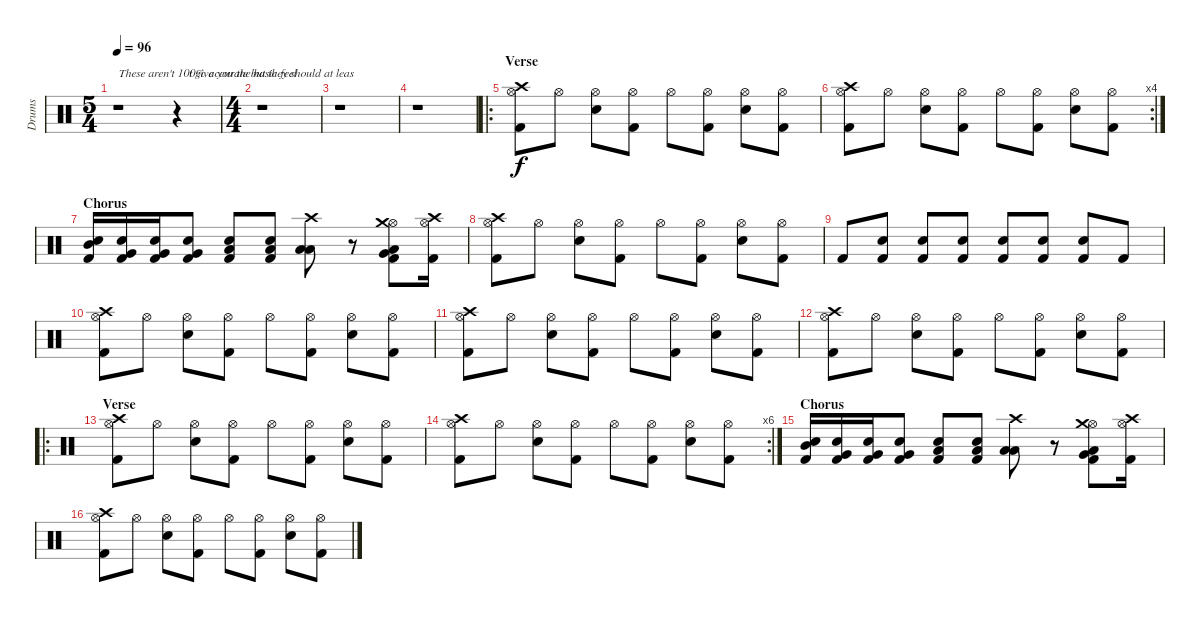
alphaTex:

\track ("Drums" "Drums") {instrument percussion}
\staff {score}
\articulation defaults
\ts (5 4)
\tempo 96
\clef neutral
\ks c
r.1{txt "These aren't 100% accurate but they should at leas" dy f} r.4{txt "    t give you the basic feel"} |
\ts (4 4)
r.1 |
r.1 |
r.1 |
\ro
\section ("" "Verse")
("Kick (hit) 2" "Hi-Hat (open)" "Crash high (hit)").8 "Hi-Hat (open)".8 ("Electric Snare (hit)" "Hi-Hat (open)").8 ("Kick (hit) 2" "Hi-Hat (open)").8 "Hi-Hat (open)".8 ("Kick (hit) 2" "Hi-Hat (open)").8 ("Electric Snare (hit)" "Hi-Hat (open)").8 ("Kick (hit) 2" "Hi-Hat (open)").8 |
\rc 4
("Kick (hit) 2" "Hi-Hat (open)" "Crash high (hit)").8 "Hi-Hat (open)".8 ("Electric Snare (hit)" "Hi-Hat (open)").8 ("Kick (hit) 2" "Hi-Hat (open)").8 "Hi-Hat (open)".8 ("Kick (hit) 2" "Hi-Hat (open)").8 ("Electric Snare (hit)" "Hi-Hat (open)").8 ("Kick (hit) 2" "Hi-Hat (open)").8 |
\section ("" "Chorus")
("Kick (hit) 2" "Mid Tom (hit)" "Electric Snare (hit)").16 ("Kick (hit) 2" "Very Low Tom (hit)" "Electric Snare (hit)").16 ("Kick (hit) 2" "Very Low Tom (hit)" "Electric Snare (hit)").16 ("Kick (hit) 2" "Very Low Tom (hit)" "Electric Snare (hit)").8 ("Kick (hit) 2" "Low Floor Tom (hit)" "Electric Snare (hit)").8 ("Kick (hit) 2" "Low Floor Tom (hit)" "Electric Snare (hit)").8 ("Low Floor Tom (hit)" "Low Tom (hit)" "Crash high (hit)").8 r.8 ("Kick (hit) 2" "Very Low Tom (hit)" "Hi-Hat (open)" "Low Tom (hit)" "Crash medium (hit)").8 ("Kick (hit) 2" "Hi-Hat (open)" "Crash high (hit)").16 |
("Kick (hit) 2" "Hi-Hat (open)" "Crash high (hit)").8 "Hi-Hat (open)".8 ("Electric Snare (hit)" "Hi-Hat (open)").8 ("Kick (hit) 2" "Hi-Hat (open)").8 "Hi-Hat (open)".8 ("Kick (hit) 2" "Hi-Hat (open)").8 ("Electric Snare (hit)" "Hi-Hat (open)").8 ("Kick (hit) 2" "Hi-Hat (open)").8 |
"Kick (hit) 2".8 ("Electric Snare (hit)" "Kick (hit) 2").8 ("Electric Snare (hit)" "Kick (hit) 2").8 ("Kick (hit) 2" "Electric Snare (hit)").8 ("Electric Snare (hit)" "Kick (hit) 2").8 ("Electric Snare (hit)" "Kick (hit) 2").8 ("Kick (hit) 2" "Electric Snare (hit)").8 "Kick (hit) 2".8 |
("Kick (hit) 2" "Hi-Hat (open)" "Crash high (hit)").8 "Hi-Hat (open)".8 ("Electric Snare (hit)" "Hi-Hat (open)").8 ("Kick (hit) 2" "Hi-Hat (open)").8 "Hi-Hat (open)".8 ("Kick (hit) 2" "Hi-Hat (open)").8 ("Electric Snare (hit)" "Hi-Hat (open)").8 ("Kick (hit) 2" "Hi-Hat (open)").8 |
("Kick (hit) 2" "Hi-Hat (open)" "Crash high (hit)").8 "Hi-Hat (open)".8 ("Electric Snare (hit)" "Hi-Hat (open)").8 ("Kick (hit) 2" "Hi-Hat (open)").8 "Hi-Hat (open)".8 ("Kick (hit) 2" "Hi-Hat (open)").8 ("Electric Snare (hit)" "Hi-Hat (open)").8 ("Kick (hit) 2" "Hi-Hat (open)").8 |
("Kick (hit) 2" "Hi-Hat (open)" "Crash high (hit)").8 "Hi-Hat (open)".8 ("Electric Snare (hit)" "Hi-Hat (open)").8 ("Kick (hit) 2" "Hi-Hat (open)").8 "Hi-Hat (open)".8 ("Kick (hit) 2" "Hi-Hat (open)").8 ("Electric Snare (hit)" "Hi-Hat (open)").8 ("Kick (hit) 2" "Hi-Hat (open)").8 |
\ro
\section ("" "Verse")
("Kick (hit) 2" "Hi-Hat (open)" "Crash high (hit)").8 "Hi-Hat (open)".8 ("Electric Snare (hit)" "Hi-Hat (open)").8 ("Kick (hit) 2" "Hi-Hat (open)").8 "Hi-Hat (open)".8 ("Kick (hit) 2" "Hi-Hat (open)").8 ("Electric Snare (hit)" "Hi-Hat (open)").8 ("Kick (hit) 2" "Hi-Hat (open)").8 |
\rc 6
("Kick (hit) 2" "Hi-Hat (open)" "Crash high (hit)").8 "Hi-Hat (open)".8 ("Electric Snare (hit)" "Hi-Hat (open)").8 ("Kick (hit) 2" "Hi-Hat (open)").8 "Hi-Hat (open)".8 ("Kick (hit) 2" "Hi-Hat (open)").8 ("Electric Snare (hit)" "Hi-Hat (open)").8 ("Kick (hit) 2" "Hi-Hat (open)").8 |
\section ("" "Chorus")
("Kick (hit) 2" "Mid Tom (hit)" "Electric Snare (hit)").16 ("Kick (hit) 2" "Very Low Tom (hit)" "Electric Snare (hit)").16 ("Kick (hit) 2" "Very Low Tom (hit)" "Electric Snare (hit)").16 ("Kick (hit) 2" "Very Low Tom (hit)" "Electric Snare (hit)").8 ("Kick (hit) 2" "Low Floor Tom (hit)" "Electric Snare (hit)").8 ("Kick (hit) 2" "Low Floor Tom (hit)" "Electric Snare (hit)").8 ("Low Floor Tom (hit)" "Low Tom (hit)" "Crash high (hit)").8 r.8 ("Kick (hit) 2" "Very Low Tom (hit)" "Hi-Hat (open)" "Low Tom (hit)" "Crash medium (hit)").8 ("Kick (hit) 2" "Hi-Hat (open)" "Crash high (hit)").16 |
("Kick (hit) 2" "Hi-Hat (open)" "Crash high (hit)").8 "Hi-Hat (open)".8 ("Electric Snare (hit)" "Hi-Hat (open)").8 ("Kick (hit) 2" "Hi-Hat (open)").8 "Hi-Hat (open)".8 ("Kick (hit) 2" "Hi-Hat (open)").8 ("Electric Snare (hit)" "Hi-Hat (open)").8 ("Kick (hit) 2" "Hi-Hat (open)").8
